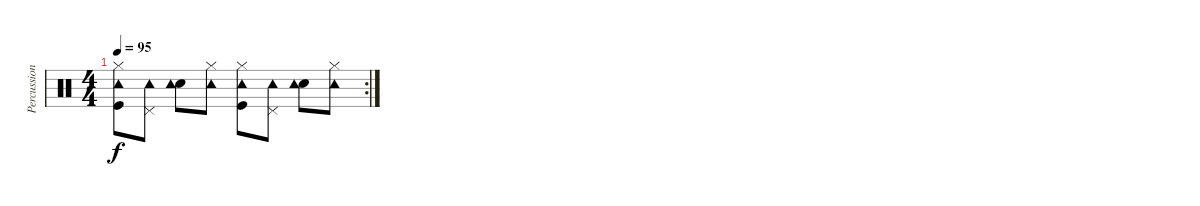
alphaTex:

\track ("Percussion" "Percussion") {instrument percussion}
\staff {score}
\articulation defaults
\rc 2
\ts (4 4)
\tempo 95
\clef neutral
\ks c
("Hi-Hat (closed)" "Kick (hit)" "Tambourine (hit)").8{dy f} ("Pedal Hi-Hat (hit)" "Tambourine (hit)").8 ("Electric Snare (hit)" "Tambourine (hit)").8 ("Hi-Hat (closed)" "Tambourine (hit)").8 ("Hi-Hat (closed)" "Kick (hit)" "Tambourine (hit)").8 ("Pedal Hi-Hat (hit)" "Tambourine (hit)").8 ("Electric Snare (hit)" "Tambourine (hit)").8 ("Hi-Hat (closed)" "Tambourine (hit)").8
